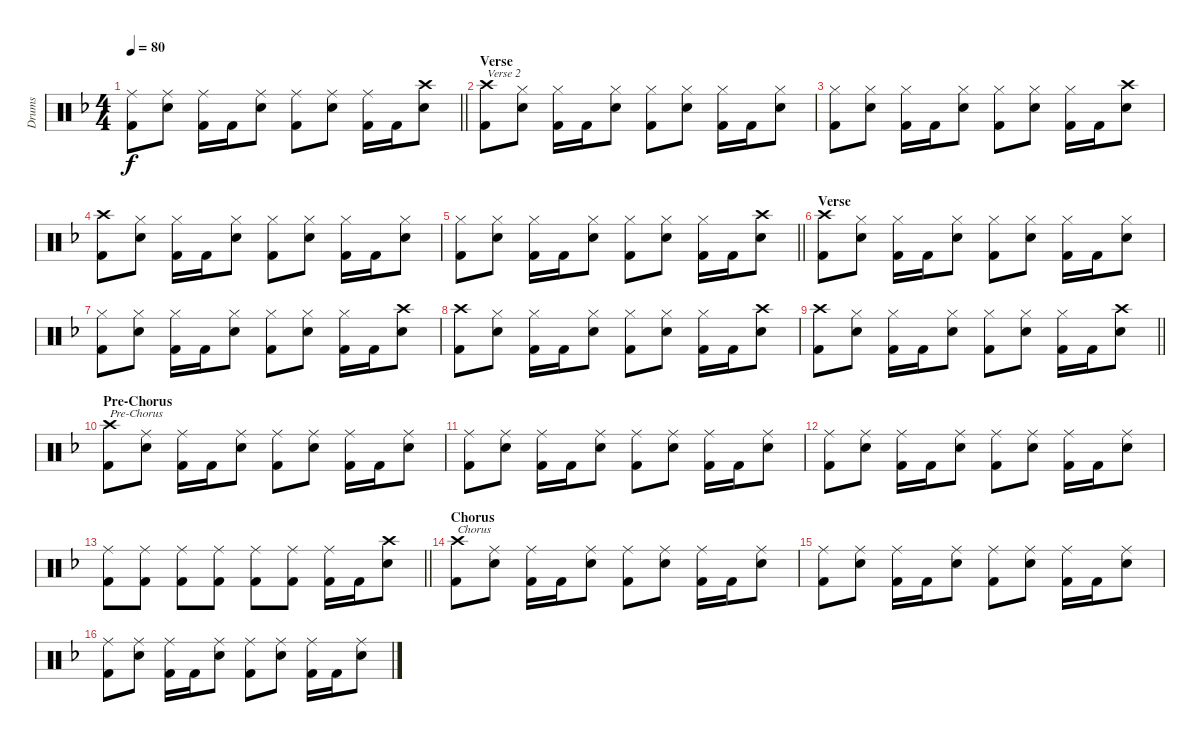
\track ("Drums" "Drums") {instrument percussion}
\staff {score}
\articulation defaults
\ts (4 4)
\tempo 80
\clef neutral
\barLineRight lightlight
\ks f
("Ride (middle)" "Kick (hit) 2").8{dy f} ("Ride (middle)" "Electric Snare (hit)").8 ("Ride (middle)" "Kick (hit) 2").16 "Kick (hit) 2".16 ("Ride (middle)" "Electric Snare (hit)").8 ("Ride (middle)" "Kick (hit) 2").8 ("Ride (middle)" "Electric Snare (hit)").8 ("Ride (middle)" "Kick (hit) 2").16 "Kick (hit) 2".16 ("Crash high (hit)" "Electric Snare (hit)").8 |
\section ("" "Verse")
("Crash high (hit)" "Kick (hit) 2").8{txt "Verse 2"} ("Hi-Hat (closed)" "Electric Snare (hit)").8 ("Hi-Hat (closed)" "Kick (hit) 2").16 "Kick (hit) 2".16 ("Hi-Hat (closed)" "Electric Snare (hit)").8 ("Hi-Hat (closed)" "Kick (hit) 2").8 ("Hi-Hat (closed)" "Electric Snare (hit)").8 ("Hi-Hat (closed)" "Kick (hit) 2").16 "Kick (hit) 2".16 ("Hi-Hat (closed)" "Electric Snare (hit)").8 |
("Hi-Hat (closed)" "Kick (hit) 2").8 ("Hi-Hat (closed)" "Electric Snare (hit)").8 ("Hi-Hat (closed)" "Kick (hit) 2").16 "Kick (hit) 2".16 ("Hi-Hat (closed)" "Electric Snare (hit)").8 ("Hi-Hat (closed)" "Kick (hit) 2").8 ("Hi-Hat (closed)" "Electric Snare (hit)").8 ("Hi-Hat (closed)" "Kick (hit) 2").16 "Kick (hit) 2".16 ("Crash high (hit)" "Electric Snare (hit)").8 |
("Crash high (hit)" "Kick (hit) 2").8 ("Hi-Hat (closed)" "Electric Snare (hit)").8 ("Hi-Hat (closed)" "Kick (hit) 2").16 "Kick (hit) 2".16 ("Hi-Hat (closed)" "Electric Snare (hit)").8 ("Hi-Hat (closed)" "Kick (hit) 2").8 ("Hi-Hat (closed)" "Electric Snare (hit)").8 ("Hi-Hat (closed)" "Kick (hit) 2").16 "Kick (hit) 2".16 ("Hi-Hat (closed)" "Electric Snare (hit)").8 |
\barLineRight lightlight
("Hi-Hat (closed)" "Kick (hit) 2").8 ("Hi-Hat (closed)" "Electric Snare (hit)").8 ("Hi-Hat (closed)" "Kick (hit) 2").16 "Kick (hit) 2".16 ("Hi-Hat (closed)" "Electric Snare (hit)").8 ("Hi-Hat (closed)" "Kick (hit) 2").8 ("Hi-Hat (closed)" "Electric Snare (hit)").8 ("Hi-Hat (closed)" "Kick (hit) 2").16 "Kick (hit) 2".16 ("Crash high (hit)" "Electric Snare (hit)").8 |
\section ("" "Verse")
("Crash high (hit)" "Kick (hit) 2").8 ("Hi-Hat (closed)" "Electric Snare (hit)").8 ("Hi-Hat (closed)" "Kick (hit) 2").16 "Kick (hit) 2".16 ("Hi-Hat (closed)" "Electric Snare (hit)").8 ("Hi-Hat (closed)" "Kick (hit) 2").8 ("Hi-Hat (closed)" "Electric Snare (hit)").8 ("Hi-Hat (closed)" "Kick (hit) 2").16 "Kick (hit) 2".16 ("Hi-Hat (closed)" "Electric Snare (hit)").8 |
("Hi-Hat (closed)" "Kick (hit) 2").8 ("Hi-Hat (closed)" "Electric Snare (hit)").8 ("Hi-Hat (closed)" "Kick (hit) 2").16 "Kick (hit) 2".16 ("Hi-Hat (closed)" "Electric Snare (hit)").8 ("Hi-Hat (closed)" "Kick (hit) 2").8 ("Hi-Hat (closed)" "Electric Snare (hit)").8 ("Hi-Hat (closed)" "Kick (hit) 2").16 "Kick (hit) 2".16 ("Crash high (hit)" "Electric Snare (hit)").8 |
("Crash high (hit)" "Kick (hit) 2").8 ("Hi-Hat (closed)" "Electric Snare (hit)").8 ("Hi-Hat (closed)" "Kick (hit) 2").16 "Kick (hit) 2".16 ("Hi-Hat (closed)" "Electric Snare (hit)").8 ("Hi-Hat (closed)" "Kick (hit) 2").8 ("Hi-Hat (closed)" "Electric Snare (hit)").8 ("Hi-Hat (closed)" "Kick (hit) 2").16 "Kick (hit) 2".16 ("Crash high (hit)" "Electric Snare (hit)").8 |
\barLineRight lightlight
("Crash high (hit)" "Kick (hit) 2").8 ("Hi-Hat (closed)" "Electric Snare (hit)").8 ("Hi-Hat (closed)" "Kick (hit) 2").16 "Kick (hit) 2".16 ("Hi-Hat (closed)" "Electric Snare (hit)").8 ("Hi-Hat (closed)" "Kick (hit) 2").8 ("Hi-Hat (closed)" "Electric Snare (hit)").8 ("Hi-Hat (closed)" "Kick (hit) 2").16 "Kick (hit) 2".16 ("Crash high (hit)" "Electric Snare (hit)").8 |
\section ("" "Pre-Chorus")
("Crash high (hit)" "Kick (hit) 2").8{txt "Pre-Chorus"} ("Ride (middle)" "Electric Snare (hit)").8 ("Ride (middle)" "Kick (hit) 2").16 "Kick (hit) 2".16 ("Ride (middle)" "Electric Snare (hit)").8 ("Ride (middle)" "Kick (hit) 2").8 ("Ride (middle)" "Electric Snare (hit)").8 ("Ride (middle)" "Kick (hit) 2").16 "Kick (hit) 2".16 ("Ride (middle)" "Electric Snare (hit)").8 |
("Ride (middle)" "Kick (hit) 2").8 ("Ride (middle)" "Electric Snare (hit)").8 ("Ride (middle)" "Kick (hit) 2").16 "Kick (hit) 2".16 ("Ride (middle)" "Electric Snare (hit)").8 ("Ride (middle)" "Kick (hit) 2").8 ("Ride (middle)" "Electric Snare (hit)").8 ("Ride (middle)" "Kick (hit) 2").16 "Kick (hit) 2".16 ("Ride (middle)" "Electric Snare (hit)").8 |
("Ride (middle)" "Kick (hit) 2").8 ("Ride (middle)" "Electric Snare (hit)").8 ("Ride (middle)" "Kick (hit) 2").16 "Kick (hit) 2".16 ("Ride (middle)" "Electric Snare (hit)").8 ("Ride (middle)" "Kick (hit) 2").8 ("Ride (middle)" "Electric Snare (hit)").8 ("Ride (middle)" "Kick (hit) 2").16 "Kick (hit) 2".16 ("Ride (middle)" "Electric Snare (hit)").8 |
\barLineRight lightlight
("Ride (middle)" "Kick (hit) 2").8 ("Ride (middle)" "Kick (hit) 2").8 ("Ride (middle)" "Kick (hit) 2").8 ("Ride (middle)" "Kick (hit) 2").8 ("Ride (middle)" "Kick (hit) 2").8 ("Ride (middle)" "Kick (hit) 2").8 ("Ride (middle)" "Kick (hit) 2").16 "Kick (hit) 2".16 ("Crash high (hit)" "Electric Snare (hit)").8 |
\section ("" "Chorus")
("Crash high (hit)" "Kick (hit) 2").8{txt "Chorus"} ("Ride (middle)" "Electric Snare (hit)").8 ("Ride (middle)" "Kick (hit) 2").16 "Kick (hit) 2".16 ("Ride (middle)" "Electric Snare (hit)").8 ("Ride (middle)" "Kick (hit) 2").8 ("Ride (middle)" "Electric Snare (hit)").8 ("Ride (middle)" "Kick (hit) 2").16 "Kick (hit) 2".16 ("Ride (middle)" "Electric Snare (hit)").8 |
("Ride (middle)" "Kick (hit) 2").8 ("Ride (middle)" "Electric Snare (hit)").8 ("Ride (middle)" "Kick (hit) 2").16 "Kick (hit) 2".16 ("Ride (middle)" "Electric Snare (hit)").8 ("Ride (middle)" "Kick (hit) 2").8 ("Ride (middle)" "Electric Snare (hit)").8 ("Ride (middle)" "Kick (hit) 2").16 "Kick (hit) 2".16 ("Ride (middle)" "Electric Snare (hit)").8 |
("Ride (middle)" "Kick (hit) 2").8 ("Ride (middle)" "Electric Snare (hit)").8 ("Ride (middle)" "Kick (hit) 2").16 "Kick (hit) 2".16 ("Ride (middle)" "Electric Snare (hit)").8 ("Ride (middle)" "Kick (hit) 2").8 ("Ride (middle)" "Electric Snare (hit)").8 ("Ride (middle)" "Kick (hit) 2").16 "Kick (hit) 2".16 ("Ride (middle)" "Electric Snare (hit)").8
